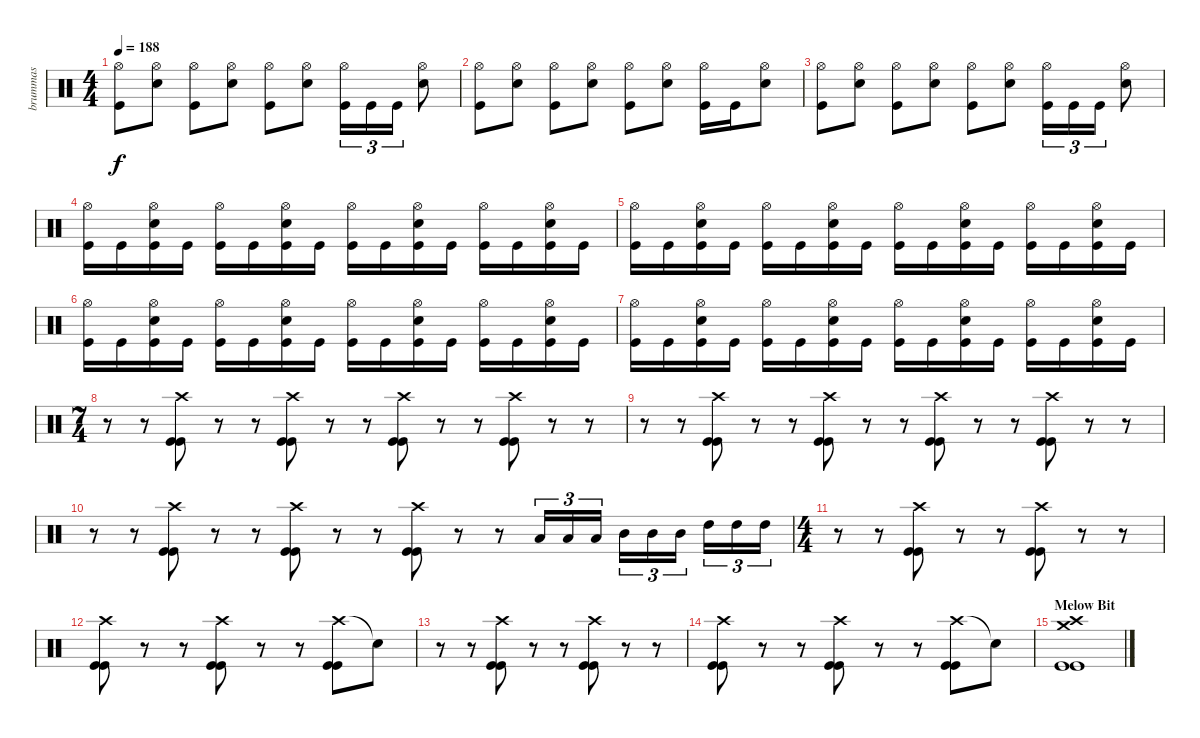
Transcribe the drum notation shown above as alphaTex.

\track ("brummas" "brummas") {instrument percussion}
\staff {score}
\articulation defaults
\ts (4 4)
\tempo 188
\clef neutral
\ks c
("Hi-Hat (open)" "Kick (hit)").8{dy f} ("Hi-Hat (open)" "Snare (hit) 2").8 ("Hi-Hat (open)" "Kick (hit)").8 ("Hi-Hat (open)" "Snare (hit) 2").8 ("Hi-Hat (open)" "Kick (hit)").8 ("Hi-Hat (open)" "Snare (hit) 2").8 ("Hi-Hat (open)" "Kick (hit)").16{tu (3 2)} "Kick (hit)".16{tu (3 2)} "Kick (hit)".16{tu (3 2)} ("Hi-Hat (open)" "Snare (hit) 2").8 |
("Hi-Hat (open)" "Kick (hit)").8 ("Hi-Hat (open)" "Snare (hit) 2").8 ("Hi-Hat (open)" "Kick (hit)").8 ("Hi-Hat (open)" "Snare (hit) 2").8 ("Hi-Hat (open)" "Kick (hit)").8 ("Hi-Hat (open)" "Snare (hit) 2").8 ("Hi-Hat (open)" "Kick (hit)").16 "Kick (hit)".16 ("Hi-Hat (open)" "Snare (hit) 2").8 |
("Hi-Hat (open)" "Kick (hit)").8 ("Hi-Hat (open)" "Snare (hit) 2").8 ("Hi-Hat (open)" "Kick (hit)").8 ("Hi-Hat (open)" "Snare (hit) 2").8 ("Hi-Hat (open)" "Kick (hit)").8 ("Hi-Hat (open)" "Snare (hit) 2").8 ("Hi-Hat (open)" "Kick (hit)").16{tu (3 2)} "Kick (hit)".16{tu (3 2)} "Kick (hit)".16{tu (3 2)} ("Hi-Hat (open)" "Snare (hit) 2").8 |
("Hi-Hat (open)" "Kick (hit)").16 "Kick (hit)".16 ("Hi-Hat (open)" "Snare (hit) 2" "Kick (hit)").16 "Kick (hit)".16 ("Hi-Hat (open)" "Kick (hit)").16 "Kick (hit)".16 ("Hi-Hat (open)" "Snare (hit) 2" "Kick (hit)").16 "Kick (hit)".16 ("Hi-Hat (open)" "Kick (hit)").16 "Kick (hit)".16 ("Hi-Hat (open)" "Snare (hit) 2" "Kick (hit)").16 "Kick (hit)".16 ("Hi-Hat (open)" "Kick (hit)").16 "Kick (hit)".16 ("Hi-Hat (open)" "Snare (hit) 2" "Kick (hit)").16 "Kick (hit)".16 |
("Hi-Hat (open)" "Kick (hit)").16 "Kick (hit)".16 ("Hi-Hat (open)" "Snare (hit) 2" "Kick (hit)").16 "Kick (hit)".16 ("Hi-Hat (open)" "Kick (hit)").16 "Kick (hit)".16 ("Hi-Hat (open)" "Snare (hit) 2" "Kick (hit)").16 "Kick (hit)".16 ("Hi-Hat (open)" "Kick (hit)").16 "Kick (hit)".16 ("Hi-Hat (open)" "Snare (hit) 2" "Kick (hit)").16 "Kick (hit)".16 ("Hi-Hat (open)" "Kick (hit)").16 "Kick (hit)".16 ("Hi-Hat (open)" "Snare (hit) 2" "Kick (hit)").16 "Kick (hit)".16 |
("Hi-Hat (open)" "Kick (hit)").16 "Kick (hit)".16 ("Hi-Hat (open)" "Snare (hit) 2" "Kick (hit)").16 "Kick (hit)".16 ("Hi-Hat (open)" "Kick (hit)").16 "Kick (hit)".16 ("Hi-Hat (open)" "Snare (hit) 2" "Kick (hit)").16 "Kick (hit)".16 ("Hi-Hat (open)" "Kick (hit)").16 "Kick (hit)".16 ("Hi-Hat (open)" "Snare (hit) 2" "Kick (hit)").16 "Kick (hit)".16 ("Hi-Hat (open)" "Kick (hit)").16 "Kick (hit)".16 ("Hi-Hat (open)" "Snare (hit) 2" "Kick (hit)").16 "Kick (hit)".16 |
("Hi-Hat (open)" "Kick (hit)").16 "Kick (hit)".16 ("Hi-Hat (open)" "Snare (hit) 2" "Kick (hit)").16 "Kick (hit)".16 ("Hi-Hat (open)" "Kick (hit)").16 "Kick (hit)".16 ("Hi-Hat (open)" "Snare (hit) 2" "Kick (hit)").16 "Kick (hit)".16 ("Hi-Hat (open)" "Kick (hit)").16 "Kick (hit)".16 ("Hi-Hat (open)" "Snare (hit) 2" "Kick (hit)").16 "Kick (hit)".16 ("Hi-Hat (open)" "Kick (hit)").16 "Kick (hit)".16 ("Hi-Hat (open)" "Snare (hit) 2" "Kick (hit)").16 "Kick (hit)".16 |
\ts (7 4)
r.8 r.8 ("Crash high (hit)" "Kick (hit)" "Kick (hit)").8 r.8 r.8 ("Crash high (hit)" "Kick (hit)" "Kick (hit)").8 r.8 r.8 ("Crash high (hit)" "Kick (hit)" "Kick (hit)").8 r.8 r.8 ("Crash high (hit)" "Kick (hit)" "Kick (hit)").8 r.8 r.8 |
r.8 r.8 ("Crash high (hit)" "Kick (hit)" "Kick (hit)").8 r.8 r.8 ("Crash high (hit)" "Kick (hit)" "Kick (hit)").8 r.8 r.8 ("Crash high (hit)" "Kick (hit)" "Kick (hit)").8 r.8 r.8 ("Crash high (hit)" "Kick (hit)" "Kick (hit)").8 r.8 r.8 |
r.8 r.8 ("Crash high (hit)" "Kick (hit)" "Kick (hit)").8 r.8 r.8 ("Crash high (hit)" "Kick (hit)" "Kick (hit)").8 r.8 r.8 ("Crash high (hit)" "Kick (hit)" "Kick (hit)").8 r.8 r.8 "Low Tom (hit)".16{tu (3 2)} "Low Tom (hit)".16{tu (3 2)} "Low Tom (hit)".16{tu (3 2)} "Mid Tom (hit)".16{tu (3 2)} "Mid Tom (hit)".16{tu (3 2)} "Mid Tom (hit)".16{tu (3 2)} "High Tom (hit)".16{tu (3 2)} "High Tom (hit)".16{tu (3 2)} "High Tom (hit)".16{tu (3 2)} |
\ts (4 4)
r.8 r.8 ("Crash high (hit)" "Kick (hit)" "Kick (hit)").8 r.8 r.8 ("Crash high (hit)" "Kick (hit)" "Kick (hit)").8 r.8 r.8 |
("Crash high (hit)" "Kick (hit)" "Kick (hit)").8 r.8 r.8 ("Crash high (hit)" "Kick (hit)" "Kick (hit)").8 r.8 r.8 ("Crash high (hit)" "Kick (hit)" "Kick (hit)").8 "Snare (hit)"{t}.8 |
r.8 r.8 ("Crash high (hit)" "Kick (hit)" "Kick (hit)").8 r.8 r.8 ("Crash high (hit)" "Kick (hit)" "Kick (hit)").8 r.8 r.8 |
("Crash high (hit)" "Kick (hit)" "Kick (hit)").8 r.8 r.8 ("Crash high (hit)" "Kick (hit)" "Kick (hit)").8 r.8 r.8 ("Crash high (hit)" "Kick (hit)" "Kick (hit)").8 "Snare (hit)"{t}.8 |
\section ("" "Melow Bit")
("Crash medium (hit)" "Crash high (hit)" "Kick (hit)" "Kick (hit)").1
